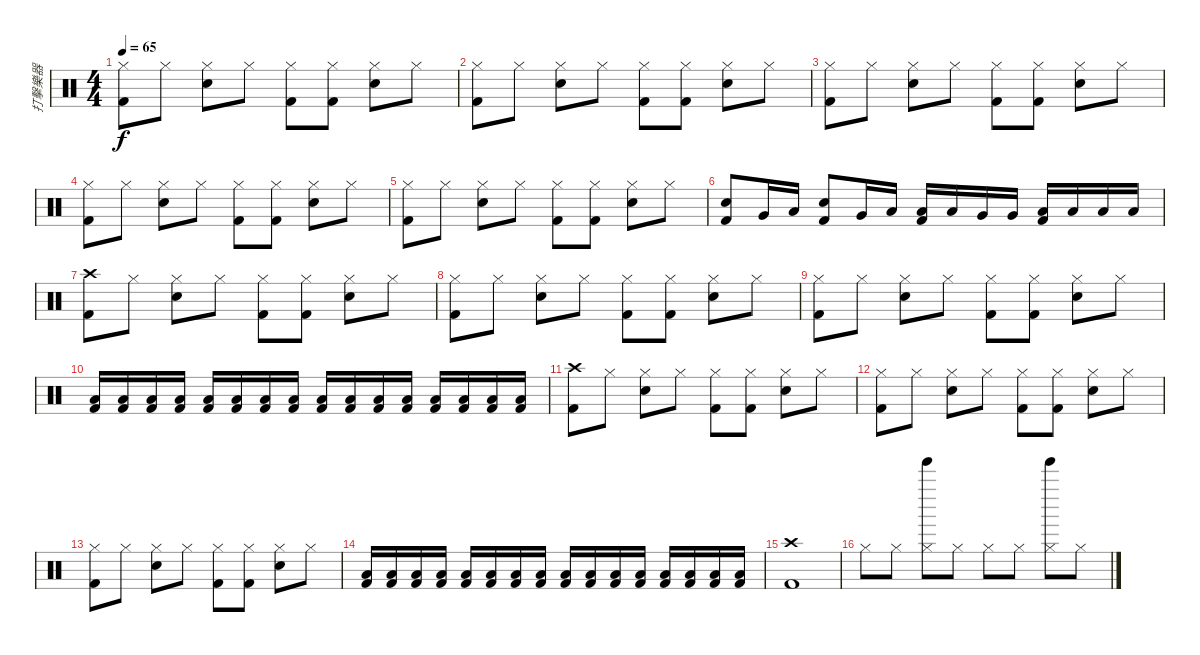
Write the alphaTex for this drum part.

\track ("打擊樂器" "打擊樂器") {instrument percussion}
\staff {score}
\articulation defaults
\ts (4 4)
\tempo 65
\clef neutral
\ks c
("Kick (hit) 2" "Hi-Hat (closed)").8{dy f} "Hi-Hat (closed)".8 ("Snare (hit) 2" "Hi-Hat (closed)").8 "Hi-Hat (closed)".8 ("Kick (hit) 2" "Hi-Hat (closed)").8 ("Kick (hit) 2" "Hi-Hat (closed)").8 ("Snare (hit) 2" "Hi-Hat (closed)").8 "Hi-Hat (closed)".8 |
("Kick (hit) 2" "Hi-Hat (closed)").8 "Hi-Hat (closed)".8 ("Snare (hit) 2" "Hi-Hat (closed)").8 "Hi-Hat (closed)".8 ("Kick (hit) 2" "Hi-Hat (closed)").8 ("Kick (hit) 2" "Hi-Hat (closed)").8 ("Snare (hit) 2" "Hi-Hat (closed)").8 "Hi-Hat (closed)".8 |
("Kick (hit) 2" "Hi-Hat (closed)").8 "Hi-Hat (closed)".8 ("Snare (hit) 2" "Hi-Hat (closed)").8 "Hi-Hat (closed)".8 ("Kick (hit) 2" "Hi-Hat (closed)").8 ("Kick (hit) 2" "Hi-Hat (closed)").8 ("Snare (hit) 2" "Hi-Hat (closed)").8 "Hi-Hat (closed)".8 |
("Kick (hit) 2" "Hi-Hat (closed)").8 "Hi-Hat (closed)".8 ("Snare (hit) 2" "Hi-Hat (closed)").8 "Hi-Hat (closed)".8 ("Kick (hit) 2" "Hi-Hat (closed)").8 ("Kick (hit) 2" "Hi-Hat (closed)").8 ("Snare (hit) 2" "Hi-Hat (closed)").8 "Hi-Hat (closed)".8 |
("Kick (hit) 2" "Hi-Hat (closed)").8 "Hi-Hat (closed)".8 ("Snare (hit) 2" "Hi-Hat (closed)").8 "Hi-Hat (closed)".8 ("Kick (hit) 2" "Hi-Hat (closed)").8 ("Kick (hit) 2" "Hi-Hat (closed)").8 ("Snare (hit) 2" "Hi-Hat (closed)").8 "Hi-Hat (closed)".8 |
("Snare (hit) 2" "Kick (hit) 2").8 "Very Low Tom (hit)".16 "Low Floor Tom (hit)".16 ("Snare (hit) 2" "Kick (hit) 2").8 "Very Low Tom (hit)".16 "Low Floor Tom (hit)".16 ("Low Tom (hit)" "Kick (hit) 2").16 "Low Tom (hit)".16 "Very Low Tom (hit)".16 "Very Low Tom (hit)".16 ("Low Floor Tom (hit)" "Kick (hit) 2").16 "Low Floor Tom (hit)".16 "Low Floor Tom (hit)".16 "Low Floor Tom (hit)".16 |
("Crash high (hit)" "Kick (hit) 2").8 "Hi-Hat (closed)".8 ("Snare (hit) 2" "Hi-Hat (closed)").8 "Hi-Hat (closed)".8 ("Kick (hit) 2" "Hi-Hat (closed)").8 ("Kick (hit) 2" "Hi-Hat (closed)").8 ("Snare (hit) 2" "Hi-Hat (closed)").8 "Hi-Hat (closed)".8 |
("Kick (hit) 2" "Hi-Hat (closed)").8 "Hi-Hat (closed)".8 ("Snare (hit) 2" "Hi-Hat (closed)").8 "Hi-Hat (closed)".8 ("Kick (hit) 2" "Hi-Hat (closed)").8 ("Kick (hit) 2" "Hi-Hat (closed)").8 ("Snare (hit) 2" "Hi-Hat (closed)").8 "Hi-Hat (closed)".8 |
("Kick (hit) 2" "Hi-Hat (closed)").8 "Hi-Hat (closed)".8 ("Snare (hit) 2" "Hi-Hat (closed)").8 "Hi-Hat (closed)".8 ("Kick (hit) 2" "Hi-Hat (closed)").8 ("Kick (hit) 2" "Hi-Hat (closed)").8 ("Snare (hit) 2" "Hi-Hat (closed)").8 "Hi-Hat (closed)".8 |
("Low Floor Tom (hit)" "Kick (hit) 2").16 ("Low Floor Tom (hit)" "Kick (hit) 2").16 ("Low Floor Tom (hit)" "Kick (hit) 2").16 ("Low Floor Tom (hit)" "Kick (hit) 2").16 ("Low Floor Tom (hit)" "Kick (hit) 2").16 ("Low Floor Tom (hit)" "Kick (hit) 2").16 ("Low Floor Tom (hit)" "Kick (hit) 2").16 ("Low Floor Tom (hit)" "Kick (hit) 2").16 ("Low Floor Tom (hit)" "Kick (hit) 2").16 ("Low Floor Tom (hit)" "Kick (hit) 2").16 ("Low Floor Tom (hit)" "Kick (hit) 2").16 ("Low Floor Tom (hit)" "Kick (hit) 2").16 ("Low Floor Tom (hit)" "Kick (hit) 2").16 ("Low Floor Tom (hit)" "Kick (hit) 2").16 ("Low Floor Tom (hit)" "Kick (hit) 2").16 ("Low Floor Tom (hit)" "Kick (hit) 2").16 |
("Crash high (hit)" "Kick (hit) 2").8 "Hi-Hat (closed)".8 ("Snare (hit) 2" "Hi-Hat (closed)").8 "Hi-Hat (closed)".8 ("Kick (hit) 2" "Hi-Hat (closed)").8 ("Kick (hit) 2" "Hi-Hat (closed)").8 ("Snare (hit) 2" "Hi-Hat (closed)").8 "Hi-Hat (closed)".8 |
("Kick (hit) 2" "Hi-Hat (closed)").8 "Hi-Hat (closed)".8 ("Snare (hit) 2" "Hi-Hat (closed)").8 "Hi-Hat (closed)".8 ("Kick (hit) 2" "Hi-Hat (closed)").8 ("Kick (hit) 2" "Hi-Hat (closed)").8 ("Snare (hit) 2" "Hi-Hat (closed)").8 "Hi-Hat (closed)".8 |
("Kick (hit) 2" "Hi-Hat (closed)").8 "Hi-Hat (closed)".8 ("Snare (hit) 2" "Hi-Hat (closed)").8 "Hi-Hat (closed)".8 ("Kick (hit) 2" "Hi-Hat (closed)").8 ("Kick (hit) 2" "Hi-Hat (closed)").8 ("Snare (hit) 2" "Hi-Hat (closed)").8 "Hi-Hat (closed)".8 |
("Low Floor Tom (hit)" "Kick (hit) 2").16 ("Low Floor Tom (hit)" "Kick (hit) 2").16 ("Low Floor Tom (hit)" "Kick (hit) 2").16 ("Low Floor Tom (hit)" "Kick (hit) 2").16 ("Low Floor Tom (hit)" "Kick (hit) 2").16 ("Low Floor Tom (hit)" "Kick (hit) 2").16 ("Low Floor Tom (hit)" "Kick (hit) 2").16 ("Low Floor Tom (hit)" "Kick (hit) 2").16 ("Low Floor Tom (hit)" "Kick (hit) 2").16 ("Low Floor Tom (hit)" "Kick (hit) 2").16 ("Low Floor Tom (hit)" "Kick (hit) 2").16 ("Low Floor Tom (hit)" "Kick (hit) 2").16 ("Low Floor Tom (hit)" "Kick (hit) 2").16 ("Low Floor Tom (hit)" "Kick (hit) 2").16 ("Low Floor Tom (hit)" "Kick (hit) 2").16 ("Low Floor Tom (hit)" "Kick (hit) 2").16 |
("Crash high (hit)" "Kick (hit) 2").1 |
"Hi-Hat (closed)".8 "Hi-Hat (closed)".8 ("Tinkle Bell (hit)" "Hi-Hat (closed)").8 "Hi-Hat (closed)".8 "Hi-Hat (closed)".8 "Hi-Hat (closed)".8 ("Tinkle Bell (hit)" "Hi-Hat (closed)").8 "Hi-Hat (closed)".8
